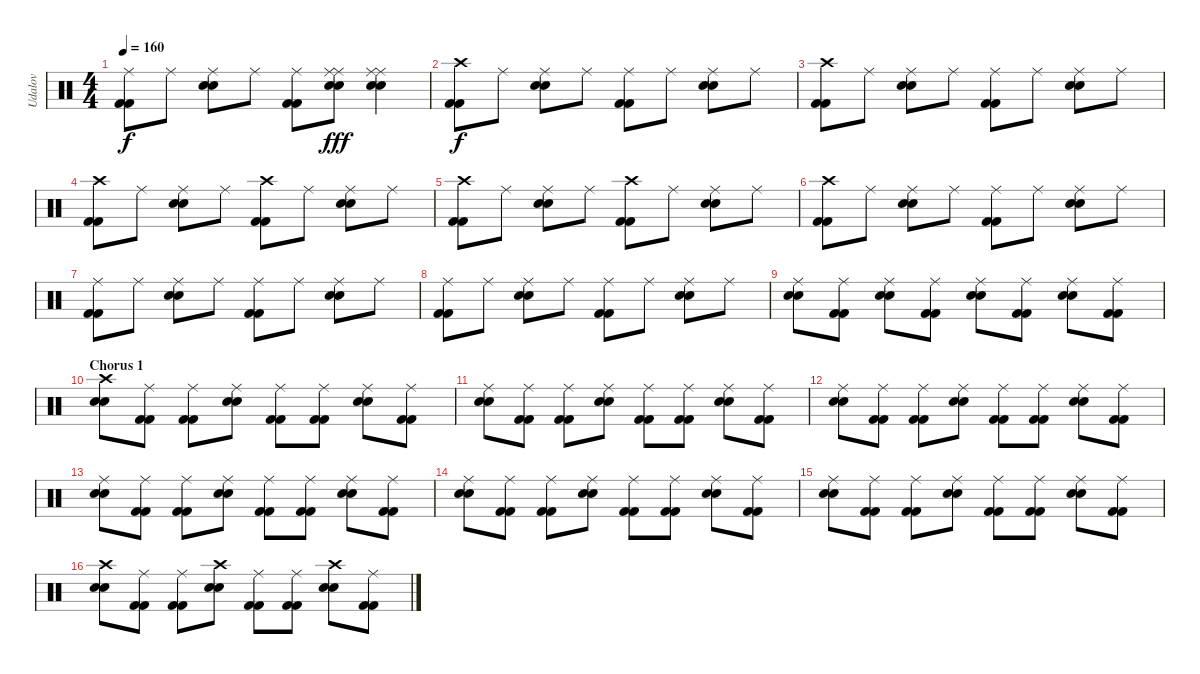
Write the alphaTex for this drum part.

\track ("Udalov" "Udalov") {instrument percussion}
\staff {score}
\articulation defaults
\ts (4 4)
\tempo 160
\clef neutral
\ks c
("Ride (middle)" "Kick (hit) 2" "Kick (hit) 2").8{dy f} "Ride (middle)".8 ("Ride (middle)" "Electric Snare (hit)" "Electric Snare (hit)").8 "Ride (middle)".8 ("Ride (middle)" "Kick (hit) 2" "Kick (hit) 2").8 ("Ride (middle)" "Ride (middle)" "Electric Snare (hit)" "Electric Snare (hit)").8{dy fff} ("Ride (middle)" "Ride (middle)" "Electric Snare (hit)" "Electric Snare (hit)").4 |
("Crash high (hit)" "Kick (hit) 2" "Kick (hit) 2").8{dy f} "Ride (middle)".8 ("Ride (middle)" "Electric Snare (hit)" "Electric Snare (hit)").8 "Ride (middle)".8 ("Ride (middle)" "Kick (hit) 2" "Kick (hit) 2").8 "Ride (middle)".8 ("Ride (middle)" "Electric Snare (hit)" "Electric Snare (hit)").8 "Ride (middle)".8 |
("Crash high (hit)" "Kick (hit) 2" "Kick (hit) 2").8 "Ride (middle)".8 ("Ride (middle)" "Electric Snare (hit)" "Electric Snare (hit)").8 "Ride (middle)".8 ("Ride (middle)" "Kick (hit) 2" "Kick (hit) 2").8 "Ride (middle)".8 ("Ride (middle)" "Electric Snare (hit)" "Electric Snare (hit)").8 "Ride (middle)".8 |
("Crash high (hit)" "Kick (hit) 2" "Kick (hit) 2").8 "Ride (middle)".8 ("Ride (middle)" "Electric Snare (hit)" "Electric Snare (hit)").8 "Ride (middle)".8 ("Crash high (hit)" "Kick (hit) 2" "Kick (hit) 2").8 "Ride (middle)".8 ("Ride (middle)" "Electric Snare (hit)" "Electric Snare (hit)").8 "Ride (middle)".8 |
("Crash high (hit)" "Kick (hit) 2" "Kick (hit) 2").8 "Ride (middle)".8 ("Ride (middle)" "Electric Snare (hit)" "Electric Snare (hit)").8 "Ride (middle)".8 ("Crash high (hit)" "Kick (hit) 2" "Kick (hit) 2").8 "Ride (middle)".8 ("Ride (middle)" "Electric Snare (hit)" "Electric Snare (hit)").8 "Ride (middle)".8 |
("Crash high (hit)" "Kick (hit) 2" "Kick (hit) 2").8 "Ride (middle)".8 ("Ride (middle)" "Electric Snare (hit)" "Electric Snare (hit)").8 "Ride (middle)".8 ("Ride (middle)" "Kick (hit) 2" "Kick (hit) 2").8 "Ride (middle)".8 ("Ride (middle)" "Electric Snare (hit)" "Electric Snare (hit)").8 "Ride (middle)".8 |
("Ride (middle)" "Kick (hit) 2" "Kick (hit) 2").8 "Ride (middle)".8 ("Ride (middle)" "Electric Snare (hit)" "Electric Snare (hit)").8 "Ride (middle)".8 ("Ride (middle)" "Kick (hit) 2" "Kick (hit) 2").8 "Ride (middle)".8 ("Ride (middle)" "Electric Snare (hit)" "Electric Snare (hit)").8 "Ride (middle)".8 |
("Ride (middle)" "Kick (hit) 2" "Kick (hit) 2").8 "Ride (middle)".8 ("Ride (middle)" "Electric Snare (hit)" "Electric Snare (hit)").8 "Ride (middle)".8 ("Ride (middle)" "Kick (hit) 2" "Kick (hit) 2").8 "Ride (middle)".8 ("Ride (middle)" "Electric Snare (hit)" "Electric Snare (hit)").8 "Ride (middle)".8 |
("Ride (middle)" "Electric Snare (hit)" "Electric Snare (hit)").8 ("Ride (middle)" "Kick (hit) 2" "Kick (hit) 2").8 ("Ride (middle)" "Electric Snare (hit)" "Electric Snare (hit)").8 ("Ride (middle)" "Kick (hit) 2" "Kick (hit) 2").8 ("Ride (middle)" "Electric Snare (hit)" "Electric Snare (hit)").8 ("Ride (middle)" "Kick (hit) 2" "Kick (hit) 2").8 ("Ride (middle)" "Electric Snare (hit)" "Electric Snare (hit)").8 ("Ride (middle)" "Kick (hit) 2" "Kick (hit) 2").8 |
\section ("" "Chorus 1")
("Crash high (hit)" "Electric Snare (hit)" "Electric Snare (hit)").8 ("Ride (middle)" "Kick (hit) 2" "Kick (hit) 2").8 ("Ride (middle)" "Kick (hit) 2" "Kick (hit) 2").8 ("Ride (middle)" "Electric Snare (hit)" "Electric Snare (hit)").8 ("Ride (middle)" "Kick (hit) 2" "Kick (hit) 2").8 ("Ride (middle)" "Kick (hit) 2" "Kick (hit) 2").8 ("Ride (middle)" "Electric Snare (hit)" "Electric Snare (hit)").8 ("Ride (middle)" "Kick (hit) 2" "Kick (hit) 2").8 |
("Ride (middle)" "Electric Snare (hit)" "Electric Snare (hit)").8 ("Ride (middle)" "Kick (hit) 2" "Kick (hit) 2").8 ("Ride (middle)" "Kick (hit) 2" "Kick (hit) 2").8 ("Ride (middle)" "Electric Snare (hit)" "Electric Snare (hit)").8 ("Ride (middle)" "Kick (hit) 2" "Kick (hit) 2").8 ("Ride (middle)" "Kick (hit) 2" "Kick (hit) 2").8 ("Ride (middle)" "Electric Snare (hit)" "Electric Snare (hit)").8 ("Ride (middle)" "Kick (hit) 2" "Kick (hit) 2").8 |
("Ride (middle)" "Electric Snare (hit)" "Electric Snare (hit)").8 ("Ride (middle)" "Kick (hit) 2" "Kick (hit) 2").8 ("Ride (middle)" "Kick (hit) 2" "Kick (hit) 2").8 ("Ride (middle)" "Electric Snare (hit)" "Electric Snare (hit)").8 ("Ride (middle)" "Kick (hit) 2" "Kick (hit) 2").8 ("Ride (middle)" "Kick (hit) 2" "Kick (hit) 2").8 ("Ride (middle)" "Electric Snare (hit)" "Electric Snare (hit)").8 ("Ride (middle)" "Kick (hit) 2" "Kick (hit) 2").8 |
("Ride (middle)" "Electric Snare (hit)" "Electric Snare (hit)").8 ("Ride (middle)" "Kick (hit) 2" "Kick (hit) 2").8 ("Ride (middle)" "Kick (hit) 2" "Kick (hit) 2").8 ("Ride (middle)" "Electric Snare (hit)" "Electric Snare (hit)").8 ("Ride (middle)" "Kick (hit) 2" "Kick (hit) 2").8 ("Ride (middle)" "Kick (hit) 2" "Kick (hit) 2").8 ("Ride (middle)" "Electric Snare (hit)" "Electric Snare (hit)").8 ("Ride (middle)" "Kick (hit) 2" "Kick (hit) 2").8 |
("Ride (middle)" "Electric Snare (hit)" "Electric Snare (hit)").8 ("Ride (middle)" "Kick (hit) 2" "Kick (hit) 2").8 ("Ride (middle)" "Kick (hit) 2" "Kick (hit) 2").8 ("Ride (middle)" "Electric Snare (hit)" "Electric Snare (hit)").8 ("Ride (middle)" "Kick (hit) 2" "Kick (hit) 2").8 ("Ride (middle)" "Kick (hit) 2" "Kick (hit) 2").8 ("Ride (middle)" "Electric Snare (hit)" "Electric Snare (hit)").8 ("Ride (middle)" "Kick (hit) 2" "Kick (hit) 2").8 |
("Ride (middle)" "Electric Snare (hit)" "Electric Snare (hit)").8 ("Ride (middle)" "Kick (hit) 2" "Kick (hit) 2").8 ("Ride (middle)" "Kick (hit) 2" "Kick (hit) 2").8 ("Ride (middle)" "Electric Snare (hit)" "Electric Snare (hit)").8 ("Ride (middle)" "Kick (hit) 2" "Kick (hit) 2").8 ("Ride (middle)" "Kick (hit) 2" "Kick (hit) 2").8 ("Ride (middle)" "Electric Snare (hit)" "Electric Snare (hit)").8 ("Ride (middle)" "Kick (hit) 2" "Kick (hit) 2").8 |
("Crash high (hit)" "Electric Snare (hit)" "Electric Snare (hit)").8 ("Ride (middle)" "Kick (hit) 2" "Kick (hit) 2").8 ("Ride (middle)" "Kick (hit) 2" "Kick (hit) 2").8 ("Crash high (hit)" "Electric Snare (hit)" "Electric Snare (hit)").8 ("Ride (middle)" "Kick (hit) 2" "Kick (hit) 2").8 ("Ride (middle)" "Kick (hit) 2" "Kick (hit) 2").8 ("Crash high (hit)" "Electric Snare (hit)" "Electric Snare (hit)").8 ("Ride (middle)" "Kick (hit) 2" "Kick (hit) 2").8
